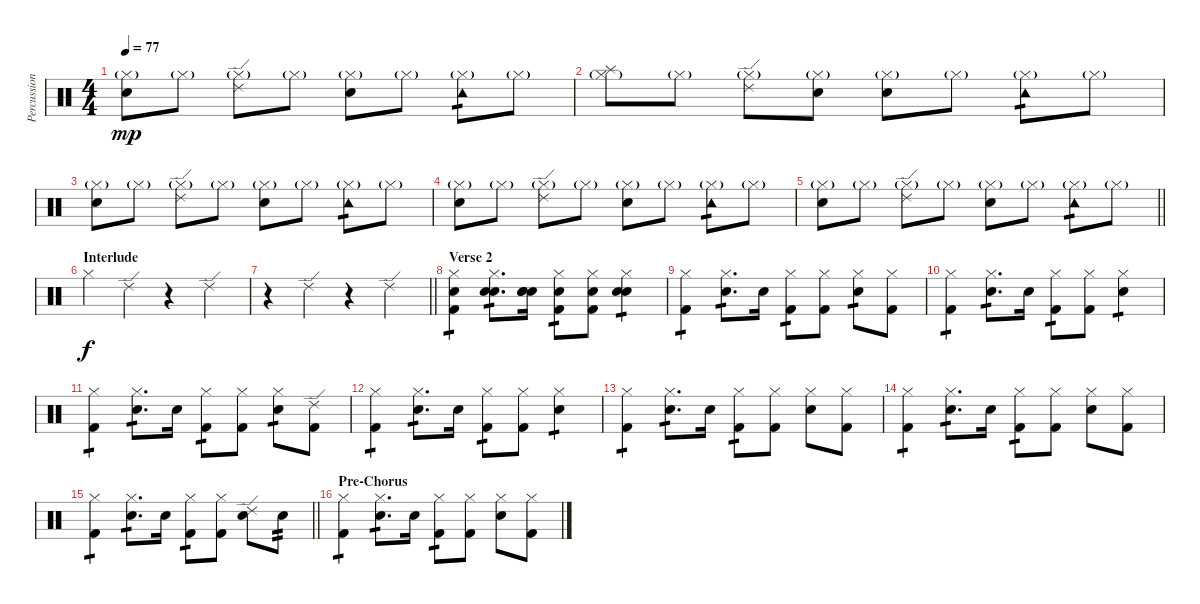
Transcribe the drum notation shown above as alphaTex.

\track ("Percussion" "Percussion") {instrument percussion}
\staff {score}
\articulation defaults
\ts (4 4)
\tempo 77
\clef neutral
\ks c
("Hi-Hat (closed)"{g} "Snare (hit)").8{dy mp} "Hi-Hat (closed)"{g}.8 ("Hi-Hat (closed)"{g} "Ride (edge) 2").8 "Hi-Hat (closed)"{g}.8 ("Hi-Hat (closed)"{g} "Snare (hit)").8 "Hi-Hat (closed)"{g}.8 ("Hi-Hat (closed)"{g} "Tambourine (hit)").8{tp 1} "Hi-Hat (closed)"{g}.8 |
("Hi-Hat (closed)"{g} "Splash (hit)").8 "Hi-Hat (closed)"{g}.8 ("Hi-Hat (closed)"{g} "Ride (edge) 2").8 ("Hi-Hat (closed)"{g} "Snare (hit)").8 ("Hi-Hat (closed)"{g} "Snare (hit)").8 "Hi-Hat (closed)"{g}.8 ("Hi-Hat (closed)"{g} "Tambourine (hit)").8{tp 1} "Hi-Hat (closed)"{g}.8 |
("Hi-Hat (closed)"{g} "Snare (hit)").8 "Hi-Hat (closed)"{g}.8 ("Hi-Hat (closed)"{g} "Ride (edge) 2").8 "Hi-Hat (closed)"{g}.8 ("Hi-Hat (closed)"{g} "Snare (hit)").8 "Hi-Hat (closed)"{g}.8 ("Hi-Hat (closed)"{g} "Tambourine (hit)").8{tp 1} "Hi-Hat (closed)"{g}.8 |
("Hi-Hat (closed)"{g} "Snare (hit)").8 "Hi-Hat (closed)"{g}.8 ("Hi-Hat (closed)"{g} "Ride (edge) 2").8 "Hi-Hat (closed)"{g}.8 ("Hi-Hat (closed)"{g} "Snare (hit)").8 "Hi-Hat (closed)"{g}.8 ("Hi-Hat (closed)"{g} "Tambourine (hit)").8{tp 1} "Hi-Hat (closed)"{g}.8 |
\barLineRight lightlight
("Hi-Hat (closed)"{g} "Snare (hit)").8 "Hi-Hat (closed)"{g}.8 ("Hi-Hat (closed)"{g} "Ride (edge) 2").8 "Hi-Hat (closed)"{g}.8 ("Hi-Hat (closed)"{g} "Snare (hit)").8 "Hi-Hat (closed)"{g}.8 ("Hi-Hat (closed)"{g} "Tambourine (hit)").8{tp 1} "Hi-Hat (closed)"{g}.8 |
\section ("" "Interlude")
"Hi-Hat (closed)".4{dy f} "Ride (edge) 2".4 r.4 "Ride (edge) 2".4 |
\barLineRight lightlight
r.4 "Ride (edge) 2".4 r.4 "Ride (edge) 2".4 |
\section ("" "Verse 2")
("Kick (hit) 2" "Hi-Hat (closed)" "Snare (hit)").4{tp 1} ("Electric Snare (hit)" "Hi-Hat (closed)" "Snare (hit)").8{d tp 1} ("Electric Snare (hit)" "Snare (hit)" "Snare (hit)").16 ("Kick (hit) 2" "Hi-Hat (closed)" "Snare (hit)").8{tp 1} ("Kick (hit) 2" "Hi-Hat (closed)" "Snare (hit)").8 ("Electric Snare (hit)" "Hi-Hat (closed)" "Snare (hit)").4{tp 1} |
("Kick (hit) 2" "Hi-Hat (closed)").4{tp 1} ("Electric Snare (hit)" "Hi-Hat (closed)").8{d tp 1} "Electric Snare (hit)".16 ("Kick (hit) 2" "Hi-Hat (closed)").8{tp 1} ("Kick (hit) 2" "Hi-Hat (closed)").8 ("Electric Snare (hit)" "Hi-Hat (closed)").8{tp 1} ("Kick (hit) 2" "Hi-Hat (closed)").8 |
("Kick (hit) 2" "Hi-Hat (closed)").4{tp 1} ("Electric Snare (hit)" "Hi-Hat (closed)").8{d tp 1} "Electric Snare (hit)".16 ("Kick (hit) 2" "Hi-Hat (closed)").8{tp 1} ("Kick (hit) 2" "Hi-Hat (closed)").8 ("Electric Snare (hit)" "Hi-Hat (closed)").4{tp 1} |
("Kick (hit) 2" "Hi-Hat (closed)").4{tp 1} ("Electric Snare (hit)" "Hi-Hat (closed)").8{d tp 1} "Electric Snare (hit)".16 ("Kick (hit) 2" "Hi-Hat (closed)").8{tp 1} ("Kick (hit) 2" "Hi-Hat (closed)").8 ("Electric Snare (hit)" "Hi-Hat (closed)").8{tp 1} ("Kick (hit) 2" "Ride (edge) 2").8 |
("Kick (hit) 2" "Hi-Hat (closed)").4{tp 1} ("Electric Snare (hit)" "Hi-Hat (closed)").8{d tp 1} "Electric Snare (hit)".16 ("Kick (hit) 2" "Hi-Hat (closed)").8{tp 1} ("Kick (hit) 2" "Hi-Hat (closed)").8 ("Electric Snare (hit)" "Hi-Hat (closed)").4{tp 1} |
("Kick (hit) 2" "Hi-Hat (closed)").4{tp 1} ("Electric Snare (hit)" "Hi-Hat (closed)").8{d tp 1} "Electric Snare (hit)".16 ("Kick (hit) 2" "Hi-Hat (closed)").8{tp 1} ("Kick (hit) 2" "Hi-Hat (closed)").8 ("Electric Snare (hit)" "Hi-Hat (closed)").8 ("Kick (hit) 2" "Hi-Hat (closed)").8 |
("Kick (hit) 2" "Hi-Hat (closed)").4{tp 1} ("Electric Snare (hit)" "Hi-Hat (closed)").8{d tp 1} "Electric Snare (hit)".16 ("Kick (hit) 2" "Hi-Hat (closed)").8{tp 1} ("Kick (hit) 2" "Hi-Hat (closed)").8 ("Electric Snare (hit)" "Hi-Hat (closed)").8 ("Kick (hit) 2" "Hi-Hat (closed)").8 |
\barLineRight lightlight
("Kick (hit) 2" "Hi-Hat (closed)").4{tp 1} ("Electric Snare (hit)" "Hi-Hat (closed)").8{d tp 1} "Electric Snare (hit)".16 ("Kick (hit) 2" "Hi-Hat (closed)").8{tp 1} ("Kick (hit) 2" "Hi-Hat (closed)").8 ("Electric Snare (hit)" "Ride (edge) 2").8 "Electric Snare (hit)".8{tp 2} |
\section ("" "Pre-Chorus")
("Kick (hit) 2" "Hi-Hat (closed)").4{tp 1} ("Electric Snare (hit)" "Hi-Hat (closed)").8{d tp 1} "Electric Snare (hit)".16 ("Kick (hit) 2" "Hi-Hat (closed)").8{tp 1} ("Kick (hit) 2" "Hi-Hat (closed)").8 ("Electric Snare (hit)" "Hi-Hat (closed)").8 ("Kick (hit) 2" "Hi-Hat (closed)").8
